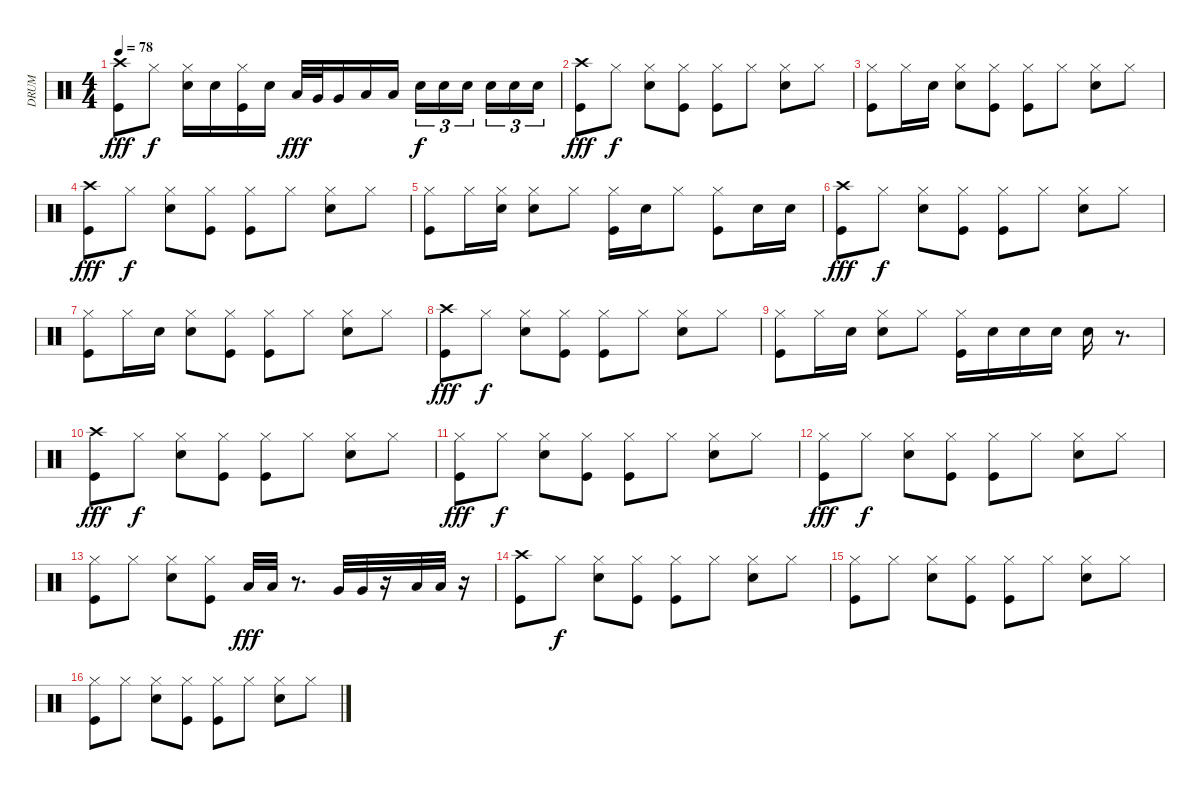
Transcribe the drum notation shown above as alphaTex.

\track ("DRUM" "DRUM") {instrument percussion}
\staff {score}
\articulation defaults
\ts (4 4)
\tempo 78
\clef neutral
\ks c
("Crash high (hit)" "Kick (hit)").8{dy fff} "Hi-Hat (closed)".8{dy f} ("Hi-Hat (closed)" "Electric Snare (hit)").16 "Electric Snare (hit)".16 ("Hi-Hat (closed)" "Kick (hit)").16 "Electric Snare (hit)".16 "Low Tom (hit)".32{dy fff} "Very Low Tom (hit)".32 "Very Low Tom (hit)".16 "Low Floor Tom (hit)".16 "Low Floor Tom (hit)".16 "Electric Snare (hit)".16{tu (3 2) dy f} "Electric Snare (hit)".16{tu (3 2)} "Electric Snare (hit)".16{tu (3 2)} "Electric Snare (hit)".16{tu (3 2)} "Electric Snare (hit)".16{tu (3 2)} "Electric Snare (hit)".16{tu (3 2)} |
("Crash high (hit)" "Kick (hit)").8{dy fff} "Hi-Hat (closed)".8{dy f} ("Hi-Hat (closed)" "Electric Snare (hit)").8 ("Hi-Hat (closed)" "Kick (hit)").8 ("Hi-Hat (closed)" "Kick (hit)").8 "Hi-Hat (closed)".8 ("Hi-Hat (closed)" "Electric Snare (hit)").8 "Hi-Hat (closed)".8 |
("Hi-Hat (closed)" "Kick (hit)").8 "Hi-Hat (closed)".16 "Electric Snare (hit)".16 ("Hi-Hat (closed)" "Electric Snare (hit)").8 ("Hi-Hat (closed)" "Kick (hit)").8 ("Hi-Hat (closed)" "Kick (hit)").8 "Hi-Hat (closed)".8 ("Hi-Hat (closed)" "Electric Snare (hit)").8 "Hi-Hat (closed)".8 |
("Crash high (hit)" "Kick (hit)").8{dy fff} "Hi-Hat (closed)".8{dy f} ("Hi-Hat (closed)" "Electric Snare (hit)").8 ("Hi-Hat (closed)" "Kick (hit)").8 ("Hi-Hat (closed)" "Kick (hit)").8 "Hi-Hat (closed)".8 ("Hi-Hat (closed)" "Electric Snare (hit)").8 "Hi-Hat (closed)".8 |
("Hi-Hat (closed)" "Kick (hit)").8 "Hi-Hat (closed)".16 ("Hi-Hat (closed)" "Electric Snare (hit)").16 ("Hi-Hat (closed)" "Electric Snare (hit)").8 "Hi-Hat (closed)".8 ("Hi-Hat (closed)" "Kick (hit)").16 "Electric Snare (hit)".16 "Hi-Hat (closed)".8 ("Hi-Hat (closed)" "Kick (hit)").8 "Electric Snare (hit)".16 "Electric Snare (hit)".16 |
("Crash high (hit)" "Kick (hit)").8{dy fff} "Hi-Hat (closed)".8{dy f} ("Hi-Hat (closed)" "Electric Snare (hit)").8 ("Hi-Hat (closed)" "Kick (hit)").8 ("Hi-Hat (closed)" "Kick (hit)").8 "Hi-Hat (closed)".8 ("Hi-Hat (closed)" "Electric Snare (hit)").8 "Hi-Hat (closed)".8 |
("Hi-Hat (closed)" "Kick (hit)").8 "Hi-Hat (closed)".16 "Electric Snare (hit)".16 ("Hi-Hat (closed)" "Electric Snare (hit)").8 ("Hi-Hat (closed)" "Kick (hit)").8 ("Hi-Hat (closed)" "Kick (hit)").8 "Hi-Hat (closed)".8 ("Hi-Hat (closed)" "Electric Snare (hit)").8 "Hi-Hat (closed)".8 |
("Crash high (hit)" "Kick (hit)").8{dy fff} "Hi-Hat (closed)".8{dy f} ("Hi-Hat (closed)" "Electric Snare (hit)").8 ("Hi-Hat (closed)" "Kick (hit)").8 ("Hi-Hat (closed)" "Kick (hit)").8 "Hi-Hat (closed)".8 ("Hi-Hat (closed)" "Electric Snare (hit)").8 "Hi-Hat (closed)".8 |
("Hi-Hat (closed)" "Kick (hit)").8 "Hi-Hat (closed)".16 "Electric Snare (hit)".16 ("Hi-Hat (closed)" "Electric Snare (hit)").8 "Hi-Hat (closed)".8 ("Hi-Hat (closed)" "Kick (hit)").16 "Electric Snare (hit)".16 "Electric Snare (hit)".16 "Electric Snare (hit)".16 "Electric Snare (hit)".16 r.8{d} |
("Crash high (hit)" "Kick (hit)").8{dy fff} "Hi-Hat (closed)".8{dy f} ("Hi-Hat (closed)" "Electric Snare (hit)").8 ("Hi-Hat (closed)" "Kick (hit)").8 ("Hi-Hat (closed)" "Kick (hit)").8 "Hi-Hat (closed)".8 ("Hi-Hat (closed)" "Electric Snare (hit)").8 "Hi-Hat (closed)".8 |
("Hi-Hat (closed)" "Kick (hit)").8{dy fff} "Hi-Hat (closed)".8{dy f} ("Hi-Hat (closed)" "Electric Snare (hit)").8 ("Hi-Hat (closed)" "Kick (hit)").8 ("Hi-Hat (closed)" "Kick (hit)").8 "Hi-Hat (closed)".8 ("Hi-Hat (closed)" "Electric Snare (hit)").8 "Hi-Hat (closed)".8 |
("Hi-Hat (closed)" "Kick (hit)").8{dy fff} "Hi-Hat (closed)".8{dy f} ("Hi-Hat (closed)" "Electric Snare (hit)").8 ("Hi-Hat (closed)" "Kick (hit)").8 ("Hi-Hat (closed)" "Kick (hit)").8 "Hi-Hat (closed)".8 ("Hi-Hat (closed)" "Electric Snare (hit)").8 "Hi-Hat (closed)".8 |
("Hi-Hat (closed)" "Kick (hit)").8 "Hi-Hat (closed)".8 ("Hi-Hat (closed)" "Electric Snare (hit)").8 ("Hi-Hat (closed)" "Kick (hit)").8 "Low Tom (hit)".32{dy fff} "Low Tom (hit)".32 r.8{d} "Very Low Tom (hit)".32 "Very Low Tom (hit)".32 r.16 "Low Floor Tom (hit)".32 "Low Floor Tom (hit)".32 r.16 |
("Crash high (hit)" "Kick (hit)").8 "Hi-Hat (closed)".8{dy f} ("Hi-Hat (closed)" "Electric Snare (hit)").8 ("Hi-Hat (closed)" "Kick (hit)").8 ("Hi-Hat (closed)" "Kick (hit)").8 "Hi-Hat (closed)".8 ("Hi-Hat (closed)" "Electric Snare (hit)").8 "Hi-Hat (closed)".8 |
("Hi-Hat (closed)" "Kick (hit)").8 "Hi-Hat (closed)".8 ("Hi-Hat (closed)" "Electric Snare (hit)").8 ("Hi-Hat (closed)" "Kick (hit)").8 ("Hi-Hat (closed)" "Kick (hit)").8 "Hi-Hat (closed)".8 ("Hi-Hat (closed)" "Electric Snare (hit)").8 "Hi-Hat (closed)".8 |
("Hi-Hat (closed)" "Kick (hit)").8 "Hi-Hat (closed)".8 ("Hi-Hat (closed)" "Electric Snare (hit)").8 ("Hi-Hat (closed)" "Kick (hit)").8 ("Hi-Hat (closed)" "Kick (hit)").8 "Hi-Hat (closed)".8 ("Hi-Hat (closed)" "Electric Snare (hit)").8 "Hi-Hat (closed)".8
